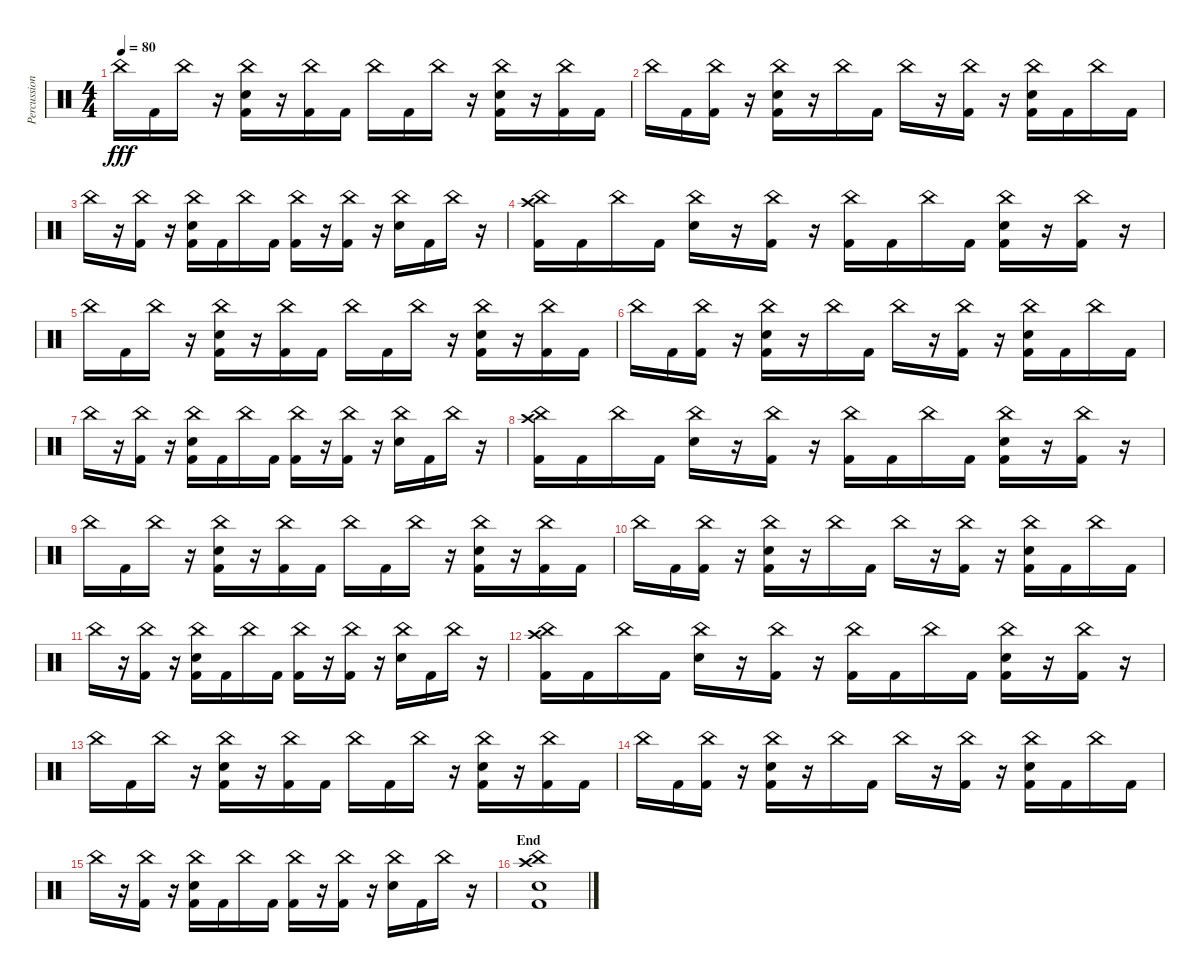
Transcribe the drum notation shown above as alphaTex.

\track ("Percussion" "Percussion") {instrument percussion}
\staff {score}
\articulation defaults
\ts (4 4)
\tempo 80
\clef neutral
\ks c "China (hit)".16{dy fff} "Kick (hit) 2".16 "China (hit)".16
r.16 ("China (hit)" "Electric Snare (hit)" "Kick (hit) 2").16 r.16 ("China (hit)" "Kick (hit) 2").16 "Kick (hit) 2".16 "China (hit)".16 "Kick (hit) 2".16 "China (hit)".16 r.16 ("China (hit)" "Electric Snare (hit)" "Kick (hit) 2").16 r.16 ("China (hit)" "Kick (hit) 2").16 "Kick (hit) 2".16 |
"China (hit)".16 "Kick (hit) 2".16 ("China (hit)" "Kick (hit) 2").16 r.16 ("China (hit)" "Electric Snare (hit)" "Kick (hit) 2").16 r.16 "China (hit)".16 "Kick (hit) 2".16 "China (hit)".16 r.16 ("China (hit)" "Kick (hit) 2").16 r.16 ("China (hit)" "Electric Snare (hit)" "Kick (hit) 2").16 "Kick (hit) 2".16 "China (hit)".16 "Kick (hit) 2".16 |
"China (hit)".16 r.16 ("China (hit)" "Kick (hit) 2").16 r.16 ("China (hit)" "Electric Snare (hit)" "Kick (hit) 2").16 "Kick (hit) 2".16 "China (hit)".16 "Kick (hit) 2".16 ("China (hit)" "Kick (hit) 2").16 r.16 ("China (hit)" "Kick (hit) 2").16 r.16 ("China (hit)" "Electric Snare (hit)").16 "Kick (hit) 2".16 "China (hit)".16 r.16 |
("China (hit)" "Crash high (hit)" "Kick (hit) 2").16 "Kick (hit) 2".16 "China (hit)".16 "Kick (hit) 2".16 ("China (hit)" "Electric Snare (hit)").16 r.16 ("China (hit)" "Kick (hit) 2").16 r.16 ("China (hit)" "Kick (hit) 2").16 "Kick (hit) 2".16 "China (hit)".16 "Kick (hit) 2".16 ("China (hit)" "Electric Snare (hit)" "Kick (hit) 2").16 r.16 ("China (hit)" "Kick (hit) 2").16 r.16 |
"China (hit)".16 "Kick (hit) 2".16 "China (hit)".16 r.16 ("China (hit)" "Electric Snare (hit)" "Kick (hit) 2").16 r.16 ("China (hit)" "Kick (hit) 2").16 "Kick (hit) 2".16 "China (hit)".16 "Kick (hit) 2".16 "China (hit)".16 r.16 ("China (hit)" "Electric Snare (hit)" "Kick (hit) 2").16 r.16 ("China (hit)" "Kick (hit) 2").16 "Kick (hit) 2".16 |
"China (hit)".16 "Kick (hit) 2".16 ("China (hit)" "Kick (hit) 2").16 r.16 ("China (hit)" "Electric Snare (hit)" "Kick (hit) 2").16 r.16 "China (hit)".16 "Kick (hit) 2".16 "China (hit)".16 r.16 ("China (hit)" "Kick (hit) 2").16 r.16 ("China (hit)" "Electric Snare (hit)" "Kick (hit) 2").16 "Kick (hit) 2".16 "China (hit)".16 "Kick (hit) 2".16 |
"China (hit)".16 r.16 ("China (hit)" "Kick (hit) 2").16 r.16 ("China (hit)" "Electric Snare (hit)" "Kick (hit) 2").16 "Kick (hit) 2".16 "China (hit)".16 "Kick (hit) 2".16 ("China (hit)" "Kick (hit) 2").16 r.16 ("China (hit)" "Kick (hit) 2").16 r.16 ("China (hit)" "Electric Snare (hit)").16 "Kick (hit) 2".16 "China (hit)".16 r.16 |
("China (hit)" "Crash high (hit)" "Kick (hit) 2").16 "Kick (hit) 2".16 "China (hit)".16 "Kick (hit) 2".16 ("China (hit)" "Electric Snare (hit)").16 r.16 ("China (hit)" "Kick (hit) 2").16 r.16 ("China (hit)" "Kick (hit) 2").16 "Kick (hit) 2".16 "China (hit)".16 "Kick (hit) 2".16 ("China (hit)" "Electric Snare (hit)" "Kick (hit) 2").16 r.16 ("China (hit)" "Kick (hit) 2").16 r.16 |
"China (hit)".16 "Kick (hit) 2".16 "China (hit)".16 r.16 ("China (hit)" "Electric Snare (hit)" "Kick (hit) 2").16 r.16 ("China (hit)" "Kick (hit) 2").16 "Kick (hit) 2".16 "China (hit)".16 "Kick (hit) 2".16 "China (hit)".16 r.16 ("China (hit)" "Electric Snare (hit)" "Kick (hit) 2").16 r.16 ("China (hit)" "Kick (hit) 2").16 "Kick (hit) 2".16 |
"China (hit)".16 "Kick (hit) 2".16 ("China (hit)" "Kick (hit) 2").16 r.16 ("China (hit)" "Electric Snare (hit)" "Kick (hit) 2").16 r.16 "China (hit)".16 "Kick (hit) 2".16 "China (hit)".16 r.16 ("China (hit)" "Kick (hit) 2").16 r.16 ("China (hit)" "Electric Snare (hit)" "Kick (hit) 2").16 "Kick (hit) 2".16 "China (hit)".16 "Kick (hit) 2".16 |
"China (hit)".16 r.16 ("China (hit)" "Kick (hit) 2").16 r.16 ("China (hit)" "Electric Snare (hit)" "Kick (hit) 2").16 "Kick (hit) 2".16 "China (hit)".16 "Kick (hit) 2".16 ("China (hit)" "Kick (hit) 2").16 r.16 ("China (hit)" "Kick (hit) 2").16 r.16 ("China (hit)" "Electric Snare (hit)").16 "Kick (hit) 2".16 "China (hit)".16 r.16 |
("China (hit)" "Crash high (hit)" "Kick (hit) 2").16 "Kick (hit) 2".16 "China (hit)".16 "Kick (hit) 2".16 ("China (hit)" "Electric Snare (hit)").16 r.16 ("China (hit)" "Kick (hit) 2").16 r.16 ("China (hit)" "Kick (hit) 2").16 "Kick (hit) 2".16 "China (hit)".16 "Kick (hit) 2".16 ("China (hit)" "Electric Snare (hit)" "Kick (hit) 2").16 r.16 ("China (hit)" "Kick (hit) 2").16 r.16 |
"China (hit)".16 "Kick (hit) 2".16 "China (hit)".16 r.16 ("China (hit)" "Electric Snare (hit)" "Kick (hit) 2").16 r.16 ("China (hit)" "Kick (hit) 2").16 "Kick (hit) 2".16 "China (hit)".16 "Kick (hit) 2".16 "China (hit)".16 r.16 ("China (hit)" "Electric Snare (hit)" "Kick (hit) 2").16 r.16 ("China (hit)" "Kick (hit) 2").16 "Kick (hit) 2".16 |
"China (hit)".16 "Kick (hit) 2".16 ("China (hit)" "Kick (hit) 2").16 r.16 ("China (hit)" "Electric Snare (hit)" "Kick (hit) 2").16 r.16 "China (hit)".16 "Kick (hit) 2".16 "China (hit)".16 r.16 ("China (hit)" "Kick (hit) 2").16 r.16 ("China (hit)" "Electric Snare (hit)" "Kick (hit) 2").16 "Kick (hit) 2".16 "China (hit)".16 "Kick (hit) 2".16 |
"China (hit)".16 r.16 ("China (hit)" "Kick (hit) 2").16 r.16 ("China (hit)" "Electric Snare (hit)" "Kick (hit) 2").16 "Kick (hit) 2".16 "China (hit)".16 "Kick (hit) 2".16 ("China (hit)" "Kick (hit) 2").16 r.16 ("China (hit)" "Kick (hit) 2").16 r.16 ("China (hit)" "Electric Snare (hit)").16 "Kick (hit) 2".16 "China (hit)".16 r.16 |
\section ("" "End")
("China (hit)" "Crash high (hit)" "Electric Snare (hit)" "Kick (hit) 2").1
